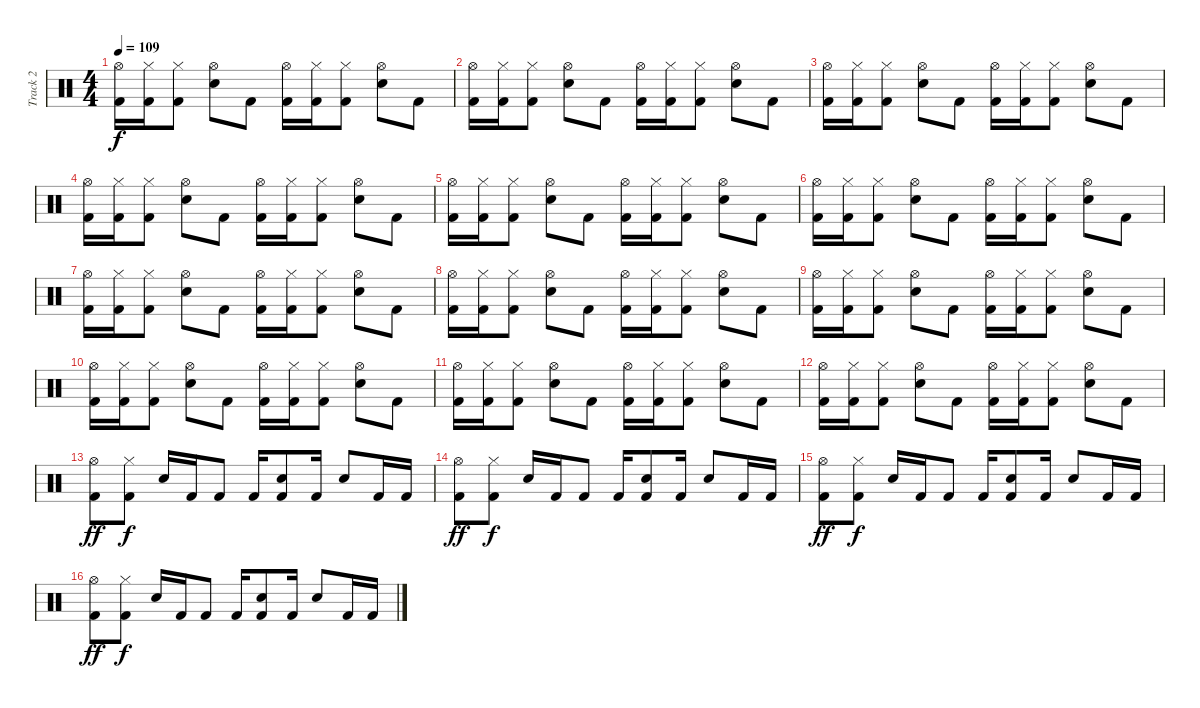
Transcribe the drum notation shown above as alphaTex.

\track ("Track 2" "Track 2") {instrument percussion}
\staff {score}
\articulation defaults
\ts (4 4)
\tempo 109
\clef neutral
\ks c
("Hi-Hat (open)" "Kick (hit) 2").16{dy f} ("Hi-Hat (closed)" "Kick (hit) 2").16 ("Hi-Hat (closed)" "Kick (hit) 2").8 ("Hi-Hat (open)" "Electric Snare (hit)").8 "Kick (hit) 2".8 ("Hi-Hat (open)" "Kick (hit) 2").16 ("Hi-Hat (closed)" "Kick (hit) 2").16 ("Hi-Hat (closed)" "Kick (hit) 2").8 ("Hi-Hat (open)" "Electric Snare (hit)").8 "Kick (hit) 2".8 |
("Hi-Hat (open)" "Kick (hit) 2").16 ("Hi-Hat (closed)" "Kick (hit) 2").16 ("Hi-Hat (closed)" "Kick (hit) 2").8 ("Hi-Hat (open)" "Electric Snare (hit)").8 "Kick (hit) 2".8 ("Hi-Hat (open)" "Kick (hit) 2").16 ("Hi-Hat (closed)" "Kick (hit) 2").16 ("Hi-Hat (closed)" "Kick (hit) 2").8 ("Hi-Hat (open)" "Electric Snare (hit)").8 "Kick (hit) 2".8 |
("Hi-Hat (open)" "Kick (hit) 2").16 ("Hi-Hat (closed)" "Kick (hit) 2").16 ("Hi-Hat (closed)" "Kick (hit) 2").8 ("Hi-Hat (open)" "Electric Snare (hit)").8 "Kick (hit) 2".8 ("Hi-Hat (open)" "Kick (hit) 2").16 ("Hi-Hat (closed)" "Kick (hit) 2").16 ("Hi-Hat (closed)" "Kick (hit) 2").8 ("Hi-Hat (open)" "Electric Snare (hit)").8 "Kick (hit) 2".8 |
("Hi-Hat (open)" "Kick (hit) 2").16 ("Hi-Hat (closed)" "Kick (hit) 2").16 ("Hi-Hat (closed)" "Kick (hit) 2").8 ("Hi-Hat (open)" "Electric Snare (hit)").8 "Kick (hit) 2".8 ("Hi-Hat (open)" "Kick (hit) 2").16 ("Hi-Hat (closed)" "Kick (hit) 2").16 ("Hi-Hat (closed)" "Kick (hit) 2").8 ("Hi-Hat (open)" "Electric Snare (hit)").8 "Kick (hit) 2".8 |
("Hi-Hat (open)" "Kick (hit) 2").16 ("Hi-Hat (closed)" "Kick (hit) 2").16 ("Hi-Hat (closed)" "Kick (hit) 2").8 ("Hi-Hat (open)" "Electric Snare (hit)").8 "Kick (hit) 2".8 ("Hi-Hat (open)" "Kick (hit) 2").16 ("Hi-Hat (closed)" "Kick (hit) 2").16 ("Hi-Hat (closed)" "Kick (hit) 2").8 ("Hi-Hat (open)" "Electric Snare (hit)").8 "Kick (hit) 2".8 |
("Hi-Hat (open)" "Kick (hit) 2").16 ("Hi-Hat (closed)" "Kick (hit) 2").16 ("Hi-Hat (closed)" "Kick (hit) 2").8 ("Hi-Hat (open)" "Electric Snare (hit)").8 "Kick (hit) 2".8 ("Hi-Hat (open)" "Kick (hit) 2").16 ("Hi-Hat (closed)" "Kick (hit) 2").16 ("Hi-Hat (closed)" "Kick (hit) 2").8 ("Hi-Hat (open)" "Electric Snare (hit)").8 "Kick (hit) 2".8 |
("Hi-Hat (open)" "Kick (hit) 2").16 ("Hi-Hat (closed)" "Kick (hit) 2").16 ("Hi-Hat (closed)" "Kick (hit) 2").8 ("Hi-Hat (open)" "Electric Snare (hit)").8 "Kick (hit) 2".8 ("Hi-Hat (open)" "Kick (hit) 2").16 ("Hi-Hat (closed)" "Kick (hit) 2").16 ("Hi-Hat (closed)" "Kick (hit) 2").8 ("Hi-Hat (open)" "Electric Snare (hit)").8 "Kick (hit) 2".8 |
("Hi-Hat (open)" "Kick (hit) 2").16 ("Hi-Hat (closed)" "Kick (hit) 2").16 ("Hi-Hat (closed)" "Kick (hit) 2").8 ("Hi-Hat (open)" "Electric Snare (hit)").8 "Kick (hit) 2".8 ("Hi-Hat (open)" "Kick (hit) 2").16 ("Hi-Hat (closed)" "Kick (hit) 2").16 ("Hi-Hat (closed)" "Kick (hit) 2").8 ("Hi-Hat (open)" "Electric Snare (hit)").8 "Kick (hit) 2".8 |
("Hi-Hat (open)" "Kick (hit) 2").16 ("Hi-Hat (closed)" "Kick (hit) 2").16 ("Hi-Hat (closed)" "Kick (hit) 2").8 ("Hi-Hat (open)" "Electric Snare (hit)").8 "Kick (hit) 2".8 ("Hi-Hat (open)" "Kick (hit) 2").16 ("Hi-Hat (closed)" "Kick (hit) 2").16 ("Hi-Hat (closed)" "Kick (hit) 2").8 ("Hi-Hat (open)" "Electric Snare (hit)").8 "Kick (hit) 2".8 |
("Hi-Hat (open)" "Kick (hit) 2").16 ("Hi-Hat (closed)" "Kick (hit) 2").16 ("Hi-Hat (closed)" "Kick (hit) 2").8 ("Hi-Hat (open)" "Electric Snare (hit)").8 "Kick (hit) 2".8 ("Hi-Hat (open)" "Kick (hit) 2").16 ("Hi-Hat (closed)" "Kick (hit) 2").16 ("Hi-Hat (closed)" "Kick (hit) 2").8 ("Hi-Hat (open)" "Electric Snare (hit)").8 "Kick (hit) 2".8 |
("Hi-Hat (open)" "Kick (hit) 2").16 ("Hi-Hat (closed)" "Kick (hit) 2").16 ("Hi-Hat (closed)" "Kick (hit) 2").8 ("Hi-Hat (open)" "Electric Snare (hit)").8 "Kick (hit) 2".8 ("Hi-Hat (open)" "Kick (hit) 2").16 ("Hi-Hat (closed)" "Kick (hit) 2").16 ("Hi-Hat (closed)" "Kick (hit) 2").8 ("Hi-Hat (open)" "Electric Snare (hit)").8 "Kick (hit) 2".8 |
("Hi-Hat (open)" "Kick (hit) 2").16 ("Hi-Hat (closed)" "Kick (hit) 2").16 ("Hi-Hat (closed)" "Kick (hit) 2").8 ("Hi-Hat (open)" "Electric Snare (hit)").8 "Kick (hit) 2".8 ("Hi-Hat (open)" "Kick (hit) 2").16 ("Hi-Hat (closed)" "Kick (hit) 2").16 ("Hi-Hat (closed)" "Kick (hit) 2").8 ("Hi-Hat (open)" "Electric Snare (hit)").8 "Kick (hit) 2".8 |
("Hi-Hat (open)" "Kick (hit) 2").8{dy ff} ("Hi-Hat (closed)" "Kick (hit) 2").8{dy f} "Electric Snare (hit)".16 "Kick (hit) 2".16 "Kick (hit) 2".8 "Kick (hit) 2".16 ("Electric Snare (hit)" "Kick (hit) 2").8 "Kick (hit) 2".16 "Electric Snare (hit)".8 "Kick (hit) 2".16 "Kick (hit) 2".16 |
("Hi-Hat (open)" "Kick (hit) 2").8{dy ff} ("Hi-Hat (closed)" "Kick (hit) 2").8{dy f} "Electric Snare (hit)".16 "Kick (hit) 2".16 "Kick (hit) 2".8 "Kick (hit) 2".16 ("Electric Snare (hit)" "Kick (hit) 2").8 "Kick (hit) 2".16 "Electric Snare (hit)".8 "Kick (hit) 2".16 "Kick (hit) 2".16 |
("Hi-Hat (open)" "Kick (hit) 2").8{dy ff} ("Hi-Hat (closed)" "Kick (hit) 2").8{dy f} "Electric Snare (hit)".16 "Kick (hit) 2".16 "Kick (hit) 2".8 "Kick (hit) 2".16 ("Electric Snare (hit)" "Kick (hit) 2").8 "Kick (hit) 2".16 "Electric Snare (hit)".8 "Kick (hit) 2".16 "Kick (hit) 2".16 |
("Hi-Hat (open)" "Kick (hit) 2").8{dy ff} ("Hi-Hat (closed)" "Kick (hit) 2").8{dy f} "Electric Snare (hit)".16 "Kick (hit) 2".16 "Kick (hit) 2".8 "Kick (hit) 2".16 ("Electric Snare (hit)" "Kick (hit) 2").8 "Kick (hit) 2".16 "Electric Snare (hit)".8 "Kick (hit) 2".16 "Kick (hit) 2".16
